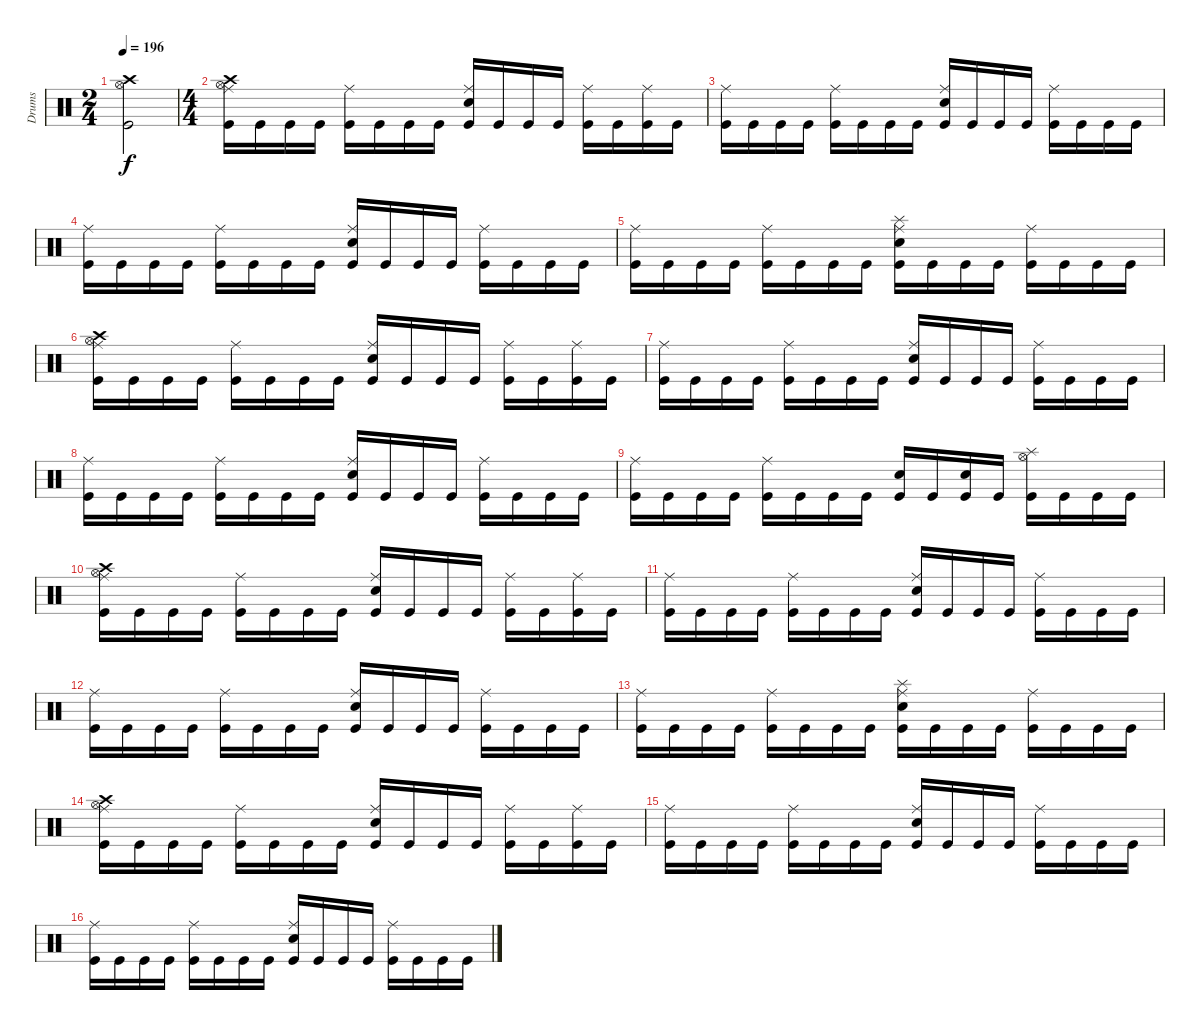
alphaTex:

\track ("Drums" "Drums") {instrument percussion}
\staff {score}
\articulation defaults
\ts (2 4)
\tempo 196
\clef neutral
\ks c
("Crash high (hit)" "Hi-Hat (open)" "Kick (hit)").2{dy f} |
\ts (4 4)
("Crash high (hit)" "Hi-Hat (open)" "Ride (middle)" "Kick (hit)").16 "Kick (hit)".16 "Kick (hit)".16 "Kick (hit)".16 ("Ride (middle)" "Kick (hit)").16 "Kick (hit)".16 "Kick (hit)".16 "Kick (hit)".16 ("Ride (middle)" "Electric Snare (hit)" "Kick (hit)").16 "Kick (hit)".16 "Kick (hit)".16 "Kick (hit)".16 ("Ride (middle)" "Kick (hit)").16 "Kick (hit)".16 ("Ride (middle)" "Kick (hit)").16 "Kick (hit)".16 |
("Ride (middle)" "Kick (hit)").16 "Kick (hit)".16 "Kick (hit)".16 "Kick (hit)".16 ("Ride (middle)" "Kick (hit)").16 "Kick (hit)".16 "Kick (hit)".16 "Kick (hit)".16 ("Ride (middle)" "Electric Snare (hit)" "Kick (hit)").16 "Kick (hit)".16 "Kick (hit)".16 "Kick (hit)".16 ("Ride (middle)" "Kick (hit)").16 "Kick (hit)".16 "Kick (hit)".16 "Kick (hit)".16 |
("Ride (middle)" "Kick (hit)").16 "Kick (hit)".16 "Kick (hit)".16 "Kick (hit)".16 ("Ride (middle)" "Kick (hit)").16 "Kick (hit)".16 "Kick (hit)".16 "Kick (hit)".16 ("Ride (middle)" "Electric Snare (hit)" "Kick (hit)").16 "Kick (hit)".16 "Kick (hit)".16 "Kick (hit)".16 ("Ride (middle)" "Kick (hit)").16 "Kick (hit)".16 "Kick (hit)".16 "Kick (hit)".16 |
("Ride (middle)" "Kick (hit)").16 "Kick (hit)".16 "Kick (hit)".16 "Kick (hit)".16 ("Ride (middle)" "Kick (hit)").16 "Kick (hit)".16 "Kick (hit)".16 "Kick (hit)".16 ("Ride (middle)" "Splash (hit)" "Electric Snare (hit)" "Kick (hit)").16 "Kick (hit)".16 "Kick (hit)".16 "Kick (hit)".16 ("Ride (middle)" "Kick (hit)").16 "Kick (hit)".16 "Kick (hit)".16 "Kick (hit)".16 |
("Crash high (hit)" "Hi-Hat (open)" "Ride (middle)" "Kick (hit)").16 "Kick (hit)".16 "Kick (hit)".16 "Kick (hit)".16 ("Ride (middle)" "Kick (hit)").16 "Kick (hit)".16 "Kick (hit)".16 "Kick (hit)".16 ("Ride (middle)" "Electric Snare (hit)" "Kick (hit)").16 "Kick (hit)".16 "Kick (hit)".16 "Kick (hit)".16 ("Ride (middle)" "Kick (hit)").16 "Kick (hit)".16 ("Ride (middle)" "Kick (hit)").16 "Kick (hit)".16 |
("Ride (middle)" "Kick (hit)").16 "Kick (hit)".16 "Kick (hit)".16 "Kick (hit)".16 ("Ride (middle)" "Kick (hit)").16 "Kick (hit)".16 "Kick (hit)".16 "Kick (hit)".16 ("Ride (middle)" "Electric Snare (hit)" "Kick (hit)").16 "Kick (hit)".16 "Kick (hit)".16 "Kick (hit)".16 ("Ride (middle)" "Kick (hit)").16 "Kick (hit)".16 "Kick (hit)".16 "Kick (hit)".16 |
("Ride (middle)" "Kick (hit)").16 "Kick (hit)".16 "Kick (hit)".16 "Kick (hit)".16 ("Ride (middle)" "Kick (hit)").16 "Kick (hit)".16 "Kick (hit)".16 "Kick (hit)".16 ("Ride (middle)" "Electric Snare (hit)" "Kick (hit)").16 "Kick (hit)".16 "Kick (hit)".16 "Kick (hit)".16 ("Ride (middle)" "Kick (hit)").16 "Kick (hit)".16 "Kick (hit)".16 "Kick (hit)".16 |
("Ride (middle)" "Kick (hit)").16 "Kick (hit)".16 "Kick (hit)".16 "Kick (hit)".16 ("Ride (middle)" "Kick (hit)").16 "Kick (hit)".16 "Kick (hit)".16 "Kick (hit)".16 ("Electric Snare (hit)" "Kick (hit)").16 "Kick (hit)".16 ("Electric Snare (hit)" "Kick (hit)").16 "Kick (hit)".16 ("Splash (hit)" "Hi-Hat (open)" "Kick (hit)").16 "Kick (hit)".16 "Kick (hit)".16 "Kick (hit)".16 |
("Crash high (hit)" "Hi-Hat (open)" "Ride (middle)" "Kick (hit)").16 "Kick (hit)".16 "Kick (hit)".16 "Kick (hit)".16 ("Ride (middle)" "Kick (hit)").16 "Kick (hit)".16 "Kick (hit)".16 "Kick (hit)".16 ("Ride (middle)" "Electric Snare (hit)" "Kick (hit)").16 "Kick (hit)".16 "Kick (hit)".16 "Kick (hit)".16 ("Ride (middle)" "Kick (hit)").16 "Kick (hit)".16 ("Ride (middle)" "Kick (hit)").16 "Kick (hit)".16 |
("Ride (middle)" "Kick (hit)").16 "Kick (hit)".16 "Kick (hit)".16 "Kick (hit)".16 ("Ride (middle)" "Kick (hit)").16 "Kick (hit)".16 "Kick (hit)".16 "Kick (hit)".16 ("Ride (middle)" "Electric Snare (hit)" "Kick (hit)").16 "Kick (hit)".16 "Kick (hit)".16 "Kick (hit)".16 ("Ride (middle)" "Kick (hit)").16 "Kick (hit)".16 "Kick (hit)".16 "Kick (hit)".16 |
("Ride (middle)" "Kick (hit)").16 "Kick (hit)".16 "Kick (hit)".16 "Kick (hit)".16 ("Ride (middle)" "Kick (hit)").16 "Kick (hit)".16 "Kick (hit)".16 "Kick (hit)".16 ("Ride (middle)" "Electric Snare (hit)" "Kick (hit)").16 "Kick (hit)".16 "Kick (hit)".16 "Kick (hit)".16 ("Ride (middle)" "Kick (hit)").16 "Kick (hit)".16 "Kick (hit)".16 "Kick (hit)".16 |
("Ride (middle)" "Kick (hit)").16 "Kick (hit)".16 "Kick (hit)".16 "Kick (hit)".16 ("Ride (middle)" "Kick (hit)").16 "Kick (hit)".16 "Kick (hit)".16 "Kick (hit)".16 ("Ride (middle)" "Splash (hit)" "Electric Snare (hit)" "Kick (hit)").16 "Kick (hit)".16 "Kick (hit)".16 "Kick (hit)".16 ("Ride (middle)" "Kick (hit)").16 "Kick (hit)".16 "Kick (hit)".16 "Kick (hit)".16 |
("Crash high (hit)" "Hi-Hat (open)" "Ride (middle)" "Kick (hit)").16 "Kick (hit)".16 "Kick (hit)".16 "Kick (hit)".16 ("Ride (middle)" "Kick (hit)").16 "Kick (hit)".16 "Kick (hit)".16 "Kick (hit)".16 ("Ride (middle)" "Electric Snare (hit)" "Kick (hit)").16 "Kick (hit)".16 "Kick (hit)".16 "Kick (hit)".16 ("Ride (middle)" "Kick (hit)").16 "Kick (hit)".16 ("Ride (middle)" "Kick (hit)").16 "Kick (hit)".16 |
("Ride (middle)" "Kick (hit)").16 "Kick (hit)".16 "Kick (hit)".16 "Kick (hit)".16 ("Ride (middle)" "Kick (hit)").16 "Kick (hit)".16 "Kick (hit)".16 "Kick (hit)".16 ("Ride (middle)" "Electric Snare (hit)" "Kick (hit)").16 "Kick (hit)".16 "Kick (hit)".16 "Kick (hit)".16 ("Ride (middle)" "Kick (hit)").16 "Kick (hit)".16 "Kick (hit)".16 "Kick (hit)".16 |
("Ride (middle)" "Kick (hit)").16 "Kick (hit)".16 "Kick (hit)".16 "Kick (hit)".16 ("Ride (middle)" "Kick (hit)").16 "Kick (hit)".16 "Kick (hit)".16 "Kick (hit)".16 ("Ride (middle)" "Electric Snare (hit)" "Kick (hit)").16 "Kick (hit)".16 "Kick (hit)".16 "Kick (hit)".16 ("Ride (middle)" "Kick (hit)").16 "Kick (hit)".16 "Kick (hit)".16 "Kick (hit)".16
